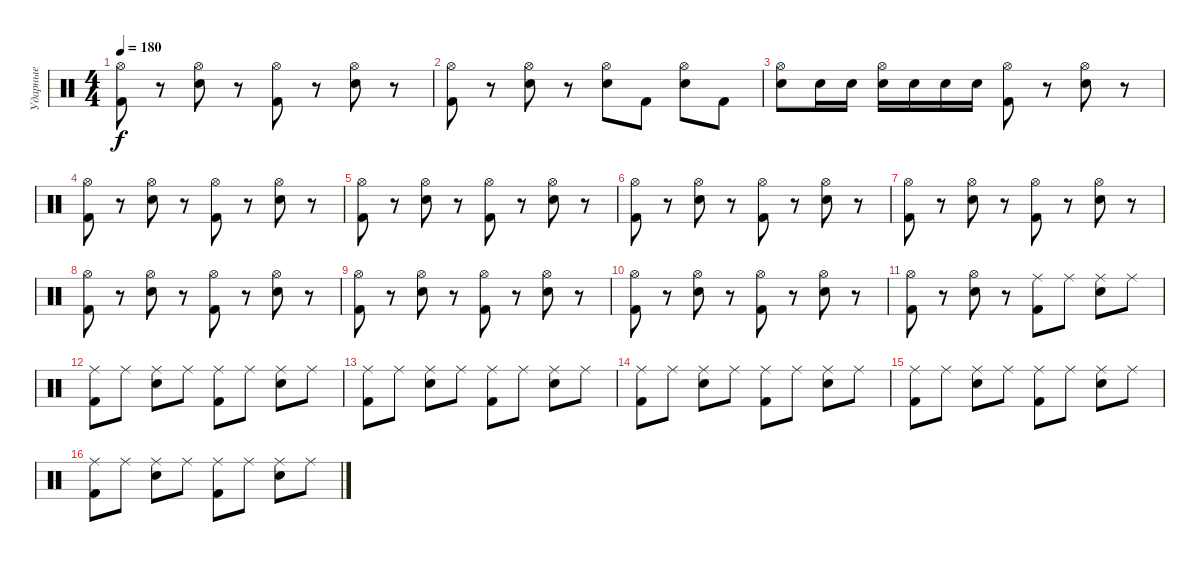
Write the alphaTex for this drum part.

\track ("Ударные" "Ударные") {instrument percussion}
\staff {score}
\articulation defaults
\ts (4 4)
\tempo 180
\clef neutral
\ks c
("Kick (hit) 2" "Hi-Hat (open)").8{dy f} r.8 ("Electric Snare (hit)" "Hi-Hat (open)").8 r.8 ("Kick (hit) 2" "Hi-Hat (open)").8 r.8 ("Electric Snare (hit)" "Hi-Hat (open)").8 r.8 |
("Kick (hit) 2" "Hi-Hat (open)").8 r.8 ("Electric Snare (hit)" "Hi-Hat (open)").8 r.8 ("Electric Snare (hit)" "Hi-Hat (open)").8 "Kick (hit) 2".8 ("Electric Snare (hit)" "Hi-Hat (open)").8 "Kick (hit) 2".8 |
("Electric Snare (hit)" "Hi-Hat (open)").8 "Electric Snare (hit)".16 "Electric Snare (hit)".16 ("Electric Snare (hit)" "Hi-Hat (open)").16 "Electric Snare (hit)".16 "Electric Snare (hit)".16 "Electric Snare (hit)".16 ("Kick (hit) 2" "Hi-Hat (open)").8 r.8 ("Electric Snare (hit)" "Hi-Hat (open)").8 r.8 |
("Kick (hit) 2" "Hi-Hat (open)").8 r.8 ("Electric Snare (hit)" "Hi-Hat (open)").8 r.8 ("Kick (hit) 2" "Hi-Hat (open)").8 r.8 ("Electric Snare (hit)" "Hi-Hat (open)").8 r.8 |
("Kick (hit) 2" "Hi-Hat (open)").8 r.8 ("Electric Snare (hit)" "Hi-Hat (open)").8 r.8 ("Kick (hit) 2" "Hi-Hat (open)").8 r.8 ("Electric Snare (hit)" "Hi-Hat (open)").8 r.8 |
("Kick (hit) 2" "Hi-Hat (open)").8 r.8 ("Electric Snare (hit)" "Hi-Hat (open)").8 r.8 ("Kick (hit) 2" "Hi-Hat (open)").8 r.8 ("Electric Snare (hit)" "Hi-Hat (open)").8 r.8 |
("Kick (hit) 2" "Hi-Hat (open)").8 r.8 ("Electric Snare (hit)" "Hi-Hat (open)").8 r.8 ("Kick (hit) 2" "Hi-Hat (open)").8 r.8 ("Electric Snare (hit)" "Hi-Hat (open)").8 r.8 |
("Kick (hit) 2" "Hi-Hat (open)").8 r.8 ("Electric Snare (hit)" "Hi-Hat (open)").8 r.8 ("Kick (hit) 2" "Hi-Hat (open)").8 r.8 ("Electric Snare (hit)" "Hi-Hat (open)").8 r.8 |
("Kick (hit) 2" "Hi-Hat (open)").8 r.8 ("Electric Snare (hit)" "Hi-Hat (open)").8 r.8 ("Kick (hit) 2" "Hi-Hat (open)").8 r.8 ("Electric Snare (hit)" "Hi-Hat (open)").8 r.8 |
("Kick (hit) 2" "Hi-Hat (open)").8 r.8 ("Electric Snare (hit)" "Hi-Hat (open)").8 r.8 ("Kick (hit) 2" "Hi-Hat (open)").8 r.8 ("Electric Snare (hit)" "Hi-Hat (open)").8 r.8 |
("Kick (hit) 2" "Hi-Hat (open)").8 r.8 ("Electric Snare (hit)" "Hi-Hat (open)").8 r.8 ("Kick (hit) 2" "Ride (middle)").8 "Ride (middle)".8 ("Electric Snare (hit)" "Ride (middle)").8 "Ride (middle)".8 |
("Kick (hit) 2" "Ride (middle)").8 "Ride (middle)".8 ("Electric Snare (hit)" "Ride (middle)").8 "Ride (middle)".8 ("Kick (hit) 2" "Ride (middle)").8 "Ride (middle)".8 ("Electric Snare (hit)" "Ride (middle)").8 "Ride (middle)".8 |
("Kick (hit) 2" "Ride (middle)").8 "Ride (middle)".8 ("Electric Snare (hit)" "Ride (middle)").8 "Ride (middle)".8 ("Kick (hit) 2" "Ride (middle)").8 "Ride (middle)".8 ("Electric Snare (hit)" "Ride (middle)").8 "Ride (middle)".8 |
("Kick (hit) 2" "Ride (middle)").8 "Ride (middle)".8 ("Electric Snare (hit)" "Ride (middle)").8 "Ride (middle)".8 ("Kick (hit) 2" "Ride (middle)").8 "Ride (middle)".8 ("Electric Snare (hit)" "Ride (middle)").8 "Ride (middle)".8 |
("Kick (hit) 2" "Ride (middle)").8 "Ride (middle)".8 ("Electric Snare (hit)" "Ride (middle)").8 "Ride (middle)".8 ("Kick (hit) 2" "Ride (middle)").8 "Ride (middle)".8 ("Electric Snare (hit)" "Ride (middle)").8 "Ride (middle)".8 |
("Kick (hit) 2" "Ride (middle)").8 "Ride (middle)".8 ("Electric Snare (hit)" "Ride (middle)").8 "Ride (middle)".8 ("Kick (hit) 2" "Ride (middle)").8 "Ride (middle)".8 ("Electric Snare (hit)" "Ride (middle)").8 "Ride (middle)".8
